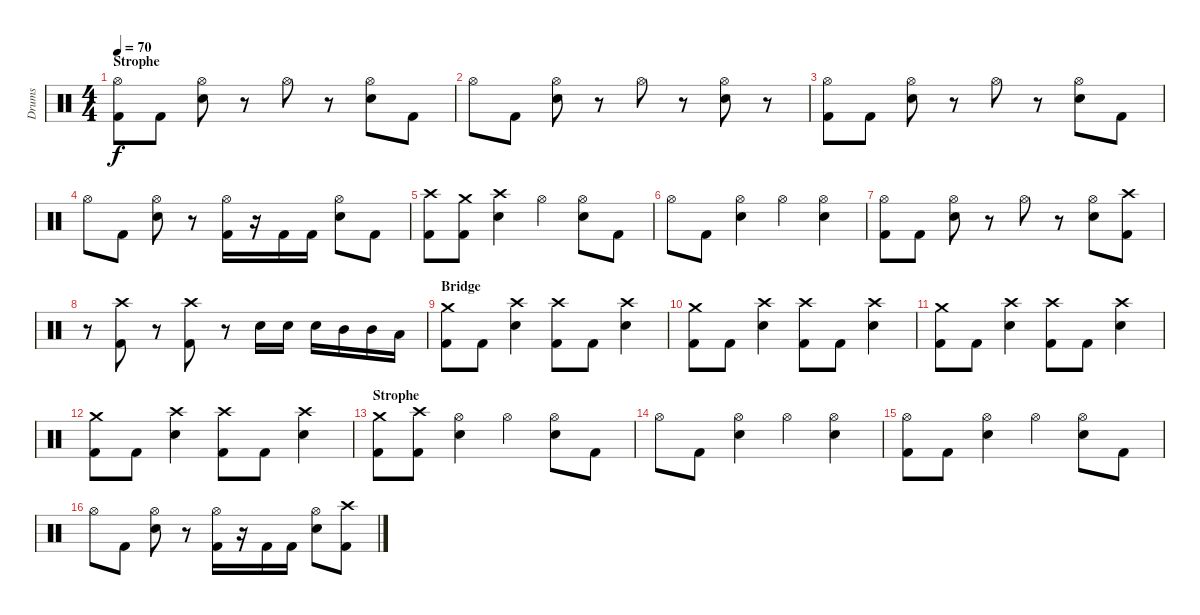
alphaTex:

\track ("Drums" "Drums") {instrument percussion}
\staff {score}
\articulation defaults
\ts (4 4)
\section ("" "Strophe")
\tempo 70
\clef neutral
\ks c
("Hi-Hat (open)" "Kick (hit) 2").8{dy f} "Kick (hit) 2".8 ("Hi-Hat (open)" "Snare (hit) 2").8 r.8 "Hi-Hat (open)".8 r.8 ("Hi-Hat (open)" "Snare (hit) 2").8 "Kick (hit) 2".8 |
"Hi-Hat (open)".8 "Kick (hit) 2".8 ("Hi-Hat (open)" "Snare (hit) 2").8 r.8 "Hi-Hat (open)".8 r.8 ("Hi-Hat (open)" "Snare (hit) 2").8 r.8 |
("Hi-Hat (open)" "Kick (hit) 2").8 "Kick (hit) 2".8 ("Hi-Hat (open)" "Snare (hit) 2").8 r.8 "Hi-Hat (open)".8 r.8 ("Hi-Hat (open)" "Snare (hit) 2").8 "Kick (hit) 2".8 |
"Hi-Hat (open)".8 "Kick (hit) 2".8 ("Hi-Hat (open)" "Snare (hit) 2").8 r.8 ("Hi-Hat (open)" "Kick (hit) 2").16 r.16 "Kick (hit) 2".16 "Kick (hit) 2".16 ("Hi-Hat (open)" "Snare (hit) 2").8 "Kick (hit) 2".8 |
("Crash high (hit)" "Kick (hit) 2").8 ("Crash medium (hit)" "Kick (hit) 2").8 ("Crash high (hit)" "Snare (hit) 2").4 "Hi-Hat (open)".4 ("Hi-Hat (open)" "Snare (hit) 2").8 "Kick (hit) 2".8 |
"Hi-Hat (open)".8 "Kick (hit) 2".8 ("Hi-Hat (open)" "Snare (hit) 2").4 "Hi-Hat (open)".4 ("Hi-Hat (open)" "Snare (hit) 2").4 |
("Hi-Hat (open)" "Kick (hit) 2").8 "Kick (hit) 2".8 ("Hi-Hat (open)" "Snare (hit) 2").8 r.8 "Hi-Hat (open)".8 r.8 ("Hi-Hat (open)" "Snare (hit) 2").8 ("Crash high (hit)" "Kick (hit) 2").8 |
r.8 ("Crash high (hit)" "Kick (hit) 2").8 r.8 ("Crash high (hit)" "Kick (hit) 2").8 r.8 "Snare (hit) 2".16 "Snare (hit) 2".16 "Snare (hit) 2".16 "Mid Tom (hit)".16 "Mid Tom (hit)".16 "Low Tom (hit)".16 |
\section ("" "Bridge")
("Crash medium (hit)" "Kick (hit) 2").8 "Kick (hit) 2".8 ("Crash high (hit)" "Snare (hit) 2").4 ("Crash high (hit)" "Kick (hit) 2").8 "Kick (hit) 2".8 ("Crash high (hit)" "Snare (hit) 2").4 |
("Crash medium (hit)" "Kick (hit) 2").8 "Kick (hit) 2".8 ("Crash high (hit)" "Snare (hit) 2").4 ("Crash high (hit)" "Kick (hit) 2").8 "Kick (hit) 2".8 ("Crash high (hit)" "Snare (hit) 2").4 |
("Crash medium (hit)" "Kick (hit) 2").8 "Kick (hit) 2".8 ("Crash high (hit)" "Snare (hit) 2").4 ("Crash high (hit)" "Kick (hit) 2").8 "Kick (hit) 2".8 ("Crash high (hit)" "Snare (hit) 2").4 |
("Crash medium (hit)" "Kick (hit) 2").8 "Kick (hit) 2".8 ("Crash high (hit)" "Snare (hit) 2").4 ("Crash high (hit)" "Kick (hit) 2").8 "Kick (hit) 2".8 ("Crash high (hit)" "Snare (hit) 2").4 |
\section ("" "Strophe")
("Crash medium (hit)" "Kick (hit) 2").8 ("Crash high (hit)" "Kick (hit) 2").8 ("Hi-Hat (open)" "Snare (hit) 2").4 "Hi-Hat (open)".4 ("Hi-Hat (open)" "Snare (hit) 2").8 "Kick (hit) 2".8 |
"Hi-Hat (open)".8 "Kick (hit) 2".8 ("Hi-Hat (open)" "Snare (hit) 2").4 "Hi-Hat (open)".4 ("Hi-Hat (open)" "Snare (hit) 2").4 |
("Hi-Hat (open)" "Kick (hit) 2").8 "Kick (hit) 2".8 ("Hi-Hat (open)" "Snare (hit) 2").4 "Hi-Hat (open)".4 ("Hi-Hat (open)" "Snare (hit) 2").8 "Kick (hit) 2".8 |
"Hi-Hat (open)".8 "Kick (hit) 2".8 ("Hi-Hat (open)" "Snare (hit) 2").8 r.8 ("Hi-Hat (open)" "Kick (hit) 2").16 r.16 "Kick (hit) 2".16 "Kick (hit) 2".16 ("Hi-Hat (open)" "Snare (hit) 2").8 ("Crash high (hit)" "Kick (hit) 2").8
